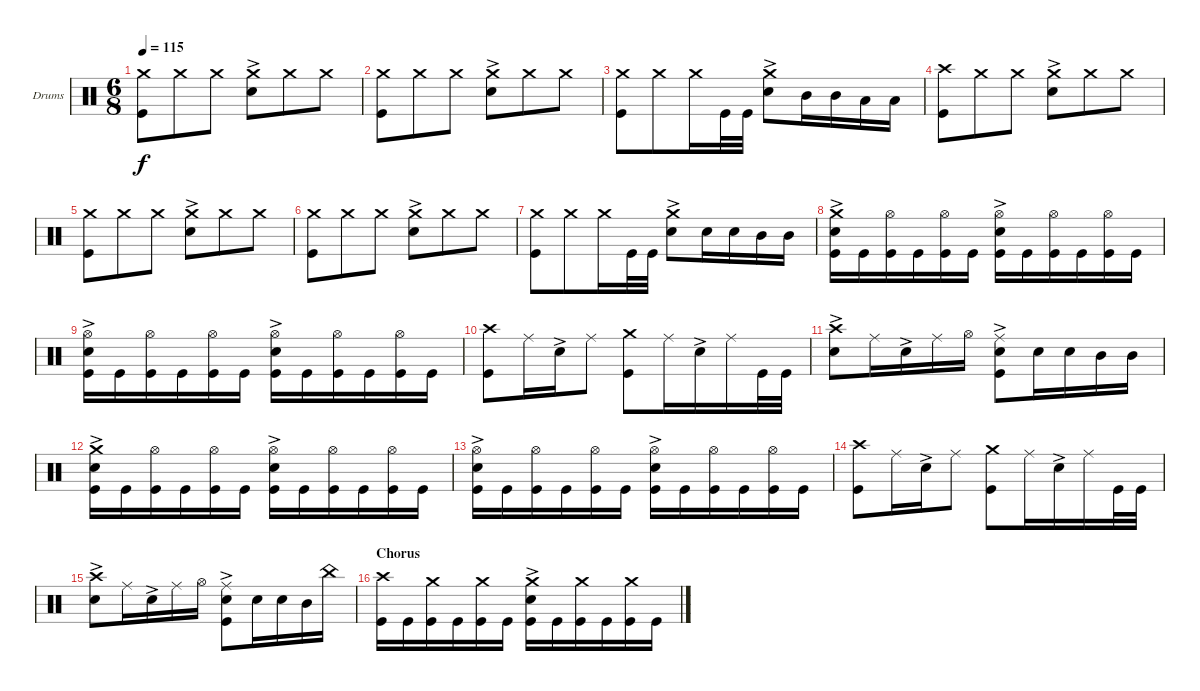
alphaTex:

\bracketExtendMode groupsimilarinstruments
\firstSystemTrackNameOrientation horizontal
\otherSystemsTrackNameOrientation horizontal
\track ("Drumkit" "Drums") {instrument percussion}
\staff {score}
\articulation defaults
\ts (6 8)
\tempo 115
\clef neutral
\ks c
("Kick (hit)" "Crash medium (hit)").8{dy f} "Crash medium (hit)".8 "Crash medium (hit)".8 ("Snare (hit) 2"{ac} "Crash medium (hit)").8 "Crash medium (hit)".8 "Crash medium (hit)".8 |
("Kick (hit)" "Crash medium (hit)").8 "Crash medium (hit)".8 "Crash medium (hit)".8 ("Snare (hit) 2"{ac} "Crash medium (hit)").8 "Crash medium (hit)".8 "Crash medium (hit)".8 |
("Kick (hit)" "Crash medium (hit)").8 "Crash medium (hit)".8 "Crash medium (hit)".16 "Kick (hit)".32 "Kick (hit)".32 ("Snare (hit) 2"{ac} "Crash medium (hit)").8 "Mid Tom (hit)".16 "Mid Tom (hit)".16 "Low Tom (hit)".16 "Low Tom (hit)".16 |
("Kick (hit)" "Crash high (hit)").8 "Crash medium (hit)".8 "Crash medium (hit)".8 ("Snare (hit) 2"{ac} "Crash medium (hit)").8 "Crash medium (hit)".8 "Crash medium (hit)".8 |
("Kick (hit)" "Crash medium (hit)").8 "Crash medium (hit)".8 "Crash medium (hit)".8 ("Snare (hit) 2"{ac} "Crash medium (hit)").8 "Crash medium (hit)".8 "Crash medium (hit)".8 |
("Kick (hit)" "Crash medium (hit)").8 "Crash medium (hit)".8 "Crash medium (hit)".8 ("Snare (hit) 2"{ac} "Crash medium (hit)").8 "Crash medium (hit)".8 "Crash medium (hit)".8 |
("Kick (hit)" "Crash medium (hit)").8 "Crash medium (hit)".8 "Crash medium (hit)".16 "Kick (hit)".32 "Kick (hit)".32 ("Snare (hit) 2"{ac} "Crash medium (hit)").8 "Snare (hit) 2".16 "Snare (hit) 2".16 "Mid Tom (hit)".16 "Mid Tom (hit)".16 |
("Kick (hit)" "Crash medium (hit)" "Snare (hit) 2"{ac}).16 "Kick (hit)".16 ("Kick (hit)" "Hi-Hat (open)").16 "Kick (hit)".16 ("Kick (hit)" "Hi-Hat (open)").16 "Kick (hit)".16 ("Kick (hit)" "Hi-Hat (open)" "Snare (hit) 2"{ac}).16 "Kick (hit)".16 ("Kick (hit)" "Hi-Hat (open)").16 "Kick (hit)".16 ("Kick (hit)" "Hi-Hat (open)").16 "Kick (hit)".16 |
("Kick (hit)" "Hi-Hat (open)" "Snare (hit) 2"{ac}).16 "Kick (hit)".16 ("Kick (hit)" "Hi-Hat (open)").16 "Kick (hit)".16 ("Kick (hit)" "Hi-Hat (open)").16 "Kick (hit)".16 ("Kick (hit)" "Hi-Hat (open)" "Snare (hit) 2"{ac}).16 "Kick (hit)".16 ("Kick (hit)" "Hi-Hat (open)").16 "Kick (hit)".16 ("Kick (hit)" "Hi-Hat (open)").16 "Kick (hit)".16 |
("Kick (hit)" "Crash high (hit)").8 "Ride (middle)".16 "Snare (hit) 2"{ac}.16 "Ride (middle)".8 ("Kick (hit)" "Crash medium (hit)").8 "Ride (middle)".16 "Snare (hit) 2"{ac}.16 "Ride (middle)".16 "Kick (hit)".32 "Kick (hit)".32 |
("Snare (hit) 2"{ac} "Crash high (hit)").8 "Ride (middle)".16 "Snare (hit) 2"{ac}.16 "Ride (middle)".16 "Hi-Hat (open)".16 ("Kick (hit)" "Snare (hit) 2"{ac} "Ride (middle)").8 "Snare (hit) 2".16 "Snare (hit) 2".16 "Mid Tom (hit)".16 "Mid Tom (hit)".16 |
("Kick (hit)" "Crash medium (hit)" "Snare (hit) 2"{ac}).16 "Kick (hit)".16 ("Kick (hit)" "Hi-Hat (open)").16 "Kick (hit)".16 ("Kick (hit)" "Hi-Hat (open)").16 "Kick (hit)".16 ("Kick (hit)" "Hi-Hat (open)" "Snare (hit) 2"{ac}).16 "Kick (hit)".16 ("Kick (hit)" "Hi-Hat (open)").16 "Kick (hit)".16 ("Kick (hit)" "Hi-Hat (open)").16 "Kick (hit)".16 |
("Kick (hit)" "Hi-Hat (open)" "Snare (hit) 2"{ac}).16 "Kick (hit)".16 ("Kick (hit)" "Hi-Hat (open)").16 "Kick (hit)".16 ("Kick (hit)" "Hi-Hat (open)").16 "Kick (hit)".16 ("Kick (hit)" "Hi-Hat (open)" "Snare (hit) 2"{ac}).16 "Kick (hit)".16 ("Kick (hit)" "Hi-Hat (open)").16 "Kick (hit)".16 ("Kick (hit)" "Hi-Hat (open)").16 "Kick (hit)".16 |
("Kick (hit)" "Crash high (hit)").8 "Ride (middle)".16 "Snare (hit) 2"{ac}.16 "Ride (middle)".8 ("Kick (hit)" "Crash medium (hit)").8 "Ride (middle)".16 "Snare (hit) 2"{ac}.16 "Ride (middle)".16 "Kick (hit)".32 "Kick (hit)".32 |
("Snare (hit) 2"{ac} "Crash high (hit)").8 "Ride (middle)".16 "Snare (hit) 2"{ac}.16 "Ride (middle)".16 "Hi-Hat (open)".16 ("Kick (hit)" "Snare (hit) 2"{ac} "Ride (middle)").8 "Snare (hit) 2".16 "Snare (hit) 2".16 "Mid Tom (hit)".16 "China (hit)".16 |
\section ("" "Chorus")
("Kick (hit)" "Crash high (hit)").16 "Kick (hit)".16 ("Kick (hit)" "Crash medium (hit)").16 "Kick (hit)".16 ("Kick (hit)" "Crash medium (hit)").16 "Kick (hit)".16 ("Kick (hit)" "Crash medium (hit)" "Snare (hit) 2"{ac}).16 "Kick (hit)".16 ("Kick (hit)" "Crash medium (hit)").16 "Kick (hit)".16 ("Kick (hit)" "Crash medium (hit)").16 "Kick (hit)".16
